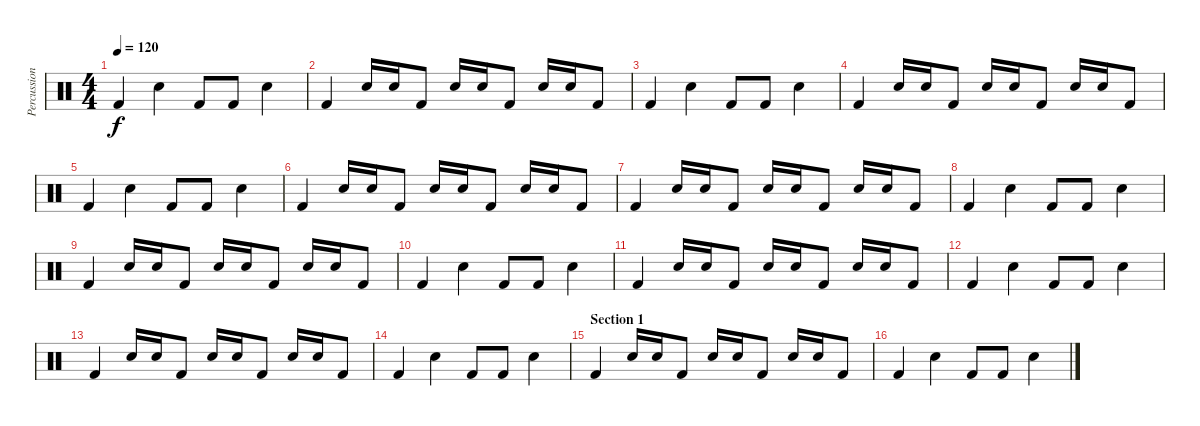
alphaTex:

\track ("Percussions" "Percussion") {instrument percussion}
\staff {score}
\articulation defaults
\ts (4 4)
\tempo 120
\clef neutral
\ks c "Kick (hit) 2".4{dy f} "Snare (hit) 2".4 "Kick (hit) 2".8 "Kick (hit) 2".8 "Snare (hit) 2".4
|
"Kick (hit) 2".4 "Snare (hit) 2".16 "Snare (hit) 2".16 "Kick (hit) 2".8 "Snare (hit) 2".16 "Snare (hit) 2".16 "Kick (hit) 2".8 "Snare (hit) 2".16 "Snare (hit) 2".16 "Kick (hit) 2".8 |
"Kick (hit) 2".4 "Snare (hit) 2".4 "Kick (hit) 2".8 "Kick (hit) 2".8 "Snare (hit) 2".4 |
"Kick (hit) 2".4 "Snare (hit) 2".16 "Snare (hit) 2".16 "Kick (hit) 2".8 "Snare (hit) 2".16 "Snare (hit) 2".16 "Kick (hit) 2".8 "Snare (hit) 2".16 "Snare (hit) 2".16 "Kick (hit) 2".8 |
"Kick (hit) 2".4 "Snare (hit) 2".4 "Kick (hit) 2".8 "Kick (hit) 2".8 "Snare (hit) 2".4 |
"Kick (hit) 2".4 "Snare (hit) 2".16 "Snare (hit) 2".16 "Kick (hit) 2".8 "Snare (hit) 2".16 "Snare (hit) 2".16 "Kick (hit) 2".8 "Snare (hit) 2".16 "Snare (hit) 2".16 "Kick (hit) 2".8 |
"Kick (hit) 2".4 "Snare (hit) 2".16 "Snare (hit) 2".16 "Kick (hit) 2".8 "Snare (hit) 2".16 "Snare (hit) 2".16 "Kick (hit) 2".8 "Snare (hit) 2".16 "Snare (hit) 2".16 "Kick (hit) 2".8 |
"Kick (hit) 2".4 "Snare (hit) 2".4 "Kick (hit) 2".8 "Kick (hit) 2".8 "Snare (hit) 2".4 |
"Kick (hit) 2".4 "Snare (hit) 2".16 "Snare (hit) 2".16 "Kick (hit) 2".8 "Snare (hit) 2".16 "Snare (hit) 2".16 "Kick (hit) 2".8 "Snare (hit) 2".16 "Snare (hit) 2".16 "Kick (hit) 2".8 |
"Kick (hit) 2".4 "Snare (hit) 2".4 "Kick (hit) 2".8 "Kick (hit) 2".8 "Snare (hit) 2".4 |
"Kick (hit) 2".4 "Snare (hit) 2".16 "Snare (hit) 2".16 "Kick (hit) 2".8 "Snare (hit) 2".16 "Snare (hit) 2".16 "Kick (hit) 2".8 "Snare (hit) 2".16 "Snare (hit) 2".16 "Kick (hit) 2".8 |
"Kick (hit) 2".4 "Snare (hit) 2".4 "Kick (hit) 2".8 "Kick (hit) 2".8 "Snare (hit) 2".4 |
"Kick (hit) 2".4 "Snare (hit) 2".16 "Snare (hit) 2".16 "Kick (hit) 2".8 "Snare (hit) 2".16 "Snare (hit) 2".16 "Kick (hit) 2".8 "Snare (hit) 2".16 "Snare (hit) 2".16 "Kick (hit) 2".8 |
"Kick (hit) 2".4 "Snare (hit) 2".4 "Kick (hit) 2".8 "Kick (hit) 2".8 "Snare (hit) 2".4 |
\section ("" "Section 1")
"Kick (hit) 2".4 "Snare (hit) 2".16 "Snare (hit) 2".16 "Kick (hit) 2".8 "Snare (hit) 2".16 "Snare (hit) 2".16 "Kick (hit) 2".8 "Snare (hit) 2".16 "Snare (hit) 2".16 "Kick (hit) 2".8 |
"Kick (hit) 2".4 "Snare (hit) 2".4 "Kick (hit) 2".8 "Kick (hit) 2".8 "Snare (hit) 2".4
